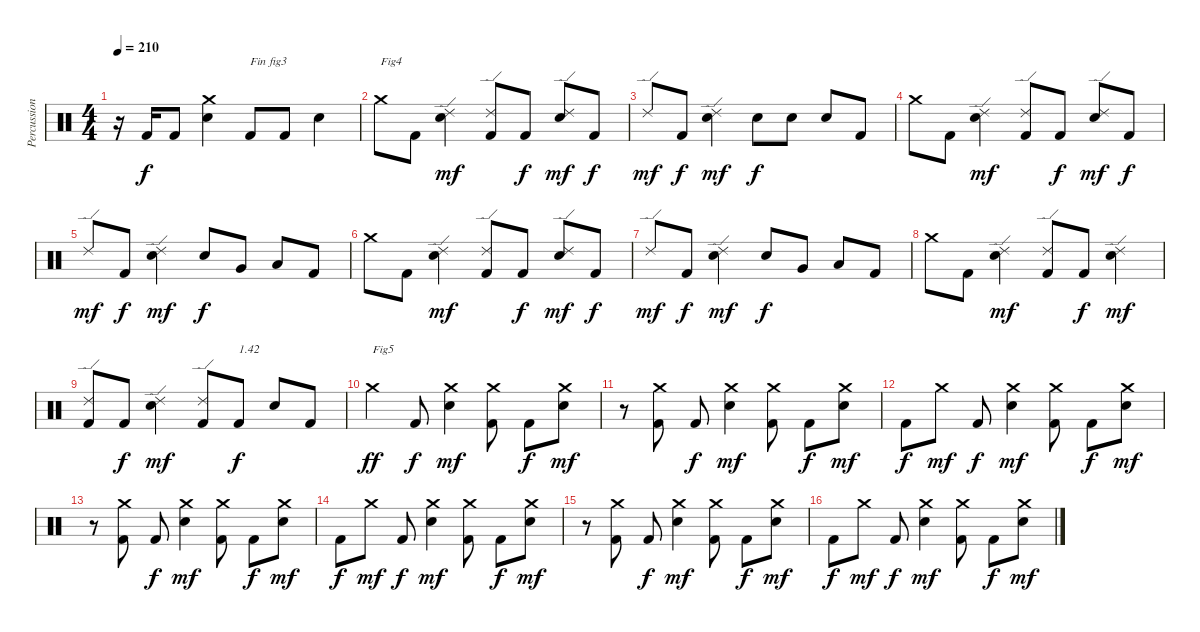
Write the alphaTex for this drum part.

\track ("Percussions" "Percussion") {instrument percussion}
\staff {score}
\articulation defaults
\ts (4 4)
\tempo 210
\clef neutral
\ks c
r.16{dy f} "Kick (hit) 2".16 "Kick (hit) 2".8 ("Electric Snare (hit)" "Crash medium (hit)").4 "Kick (hit) 2".8{txt "Fin fig3"} "Kick (hit) 2".8 "Electric Snare (hit)".4 |
"Crash medium (hit)".8{txt "Fig4"} "Kick (hit) 2".8 ("Electric Snare (hit)" "Ride (edge) 2").4{dy mf} ("Kick (hit) 2" "Ride (edge) 2").8 "Kick (hit) 2".8{dy f} ("Electric Snare (hit)" "Ride (edge) 2").8{dy mf} "Kick (hit) 2".8{dy f} |
"Ride (edge) 2".8{dy mf} "Kick (hit) 2".8{dy f} ("Electric Snare (hit)" "Ride (edge) 2").4{dy mf} "Electric Snare (hit)".8{dy f} "Electric Snare (hit)".8 "Electric Snare (hit)".8 "Kick (hit) 2".8 |
"Crash medium (hit)".8 "Kick (hit) 2".8 ("Electric Snare (hit)" "Ride (edge) 2").4{dy mf} ("Kick (hit) 2" "Ride (edge) 2").8 "Kick (hit) 2".8{dy f} ("Electric Snare (hit)" "Ride (edge) 2").8{dy mf} "Kick (hit) 2".8{dy f} |
"Ride (edge) 2".8{dy mf} "Kick (hit) 2".8{dy f} ("Electric Snare (hit)" "Ride (edge) 2").4{dy mf} "Electric Snare (hit)".8{dy f} "Very Low Tom (hit)".8 "Low Floor Tom (hit)".8 "Kick (hit) 2".8 |
"Crash medium (hit)".8 "Kick (hit) 2".8 ("Electric Snare (hit)" "Ride (edge) 2").4{dy mf} ("Kick (hit) 2" "Ride (edge) 2").8 "Kick (hit) 2".8{dy f} ("Electric Snare (hit)" "Ride (edge) 2").8{dy mf} "Kick (hit) 2".8{dy f} |
"Ride (edge) 2".8{dy mf} "Kick (hit) 2".8{dy f} ("Electric Snare (hit)" "Ride (edge) 2").4{dy mf} "Electric Snare (hit)".8{dy f} "Very Low Tom (hit)".8 "Low Floor Tom (hit)".8 "Kick (hit) 2".8 |
"Crash medium (hit)".8 "Kick (hit) 2".8 ("Electric Snare (hit)" "Ride (edge) 2").4{dy mf} ("Kick (hit) 2" "Ride (edge) 2").8 "Kick (hit) 2".8{dy f} ("Electric Snare (hit)" "Ride (edge) 2").4{dy mf} |
("Kick (hit) 2" "Ride (edge) 2").8 "Kick (hit) 2".8{dy f} ("Electric Snare (hit)" "Ride (edge) 2").4{dy mf} ("Kick (hit) 2" "Ride (edge) 2").8 "Kick (hit) 2".8{txt "1.42" dy f} "Electric Snare (hit)".8 "Kick (hit) 2".8 |
"Crash medium (hit)".4{txt "Fig5" dy ff} "Kick (hit) 2".8{dy f} ("Electric Snare (hit)" "Crash medium (hit)").4{dy mf} ("Kick (hit) 2" "Crash medium (hit)").8 "Kick (hit) 2".8{dy f} ("Electric Snare (hit)" "Crash medium (hit)").8{dy mf} |
r.8 ("Kick (hit) 2" "Crash medium (hit)").8 "Kick (hit) 2".8{dy f} ("Electric Snare (hit)" "Crash medium (hit)").4{dy mf} ("Kick (hit) 2" "Crash medium (hit)").8 "Kick (hit) 2".8{dy f} ("Electric Snare (hit)" "Crash medium (hit)").8{dy mf} |
"Kick (hit) 2".8{dy f} "Crash medium (hit)".8{dy mf} "Kick (hit) 2".8{dy f} ("Electric Snare (hit)" "Crash medium (hit)").4{dy mf} ("Kick (hit) 2" "Crash medium (hit)").8 "Kick (hit) 2".8{dy f} ("Electric Snare (hit)" "Crash medium (hit)").8{dy mf} |
r.8 ("Kick (hit) 2" "Crash medium (hit)").8 "Kick (hit) 2".8{dy f} ("Electric Snare (hit)" "Crash medium (hit)").4{dy mf} ("Kick (hit) 2" "Crash medium (hit)").8 "Kick (hit) 2".8{dy f} ("Electric Snare (hit)" "Crash medium (hit)").8{dy mf} |
"Kick (hit) 2".8{dy f} "Crash medium (hit)".8{dy mf} "Kick (hit) 2".8{dy f} ("Electric Snare (hit)" "Crash medium (hit)").4{dy mf} ("Kick (hit) 2" "Crash medium (hit)").8 "Kick (hit) 2".8{dy f} ("Electric Snare (hit)" "Crash medium (hit)").8{dy mf} |
r.8 ("Kick (hit) 2" "Crash medium (hit)").8 "Kick (hit) 2".8{dy f} ("Electric Snare (hit)" "Crash medium (hit)").4{dy mf} ("Kick (hit) 2" "Crash medium (hit)").8 "Kick (hit) 2".8{dy f} ("Electric Snare (hit)" "Crash medium (hit)").8{dy mf} |
"Kick (hit) 2".8{dy f} "Crash medium (hit)".8{dy mf} "Kick (hit) 2".8{dy f} ("Electric Snare (hit)" "Crash medium (hit)").4{dy mf} ("Kick (hit) 2" "Crash medium (hit)").8 "Kick (hit) 2".8{dy f} ("Electric Snare (hit)" "Crash medium (hit)").8{dy mf}
